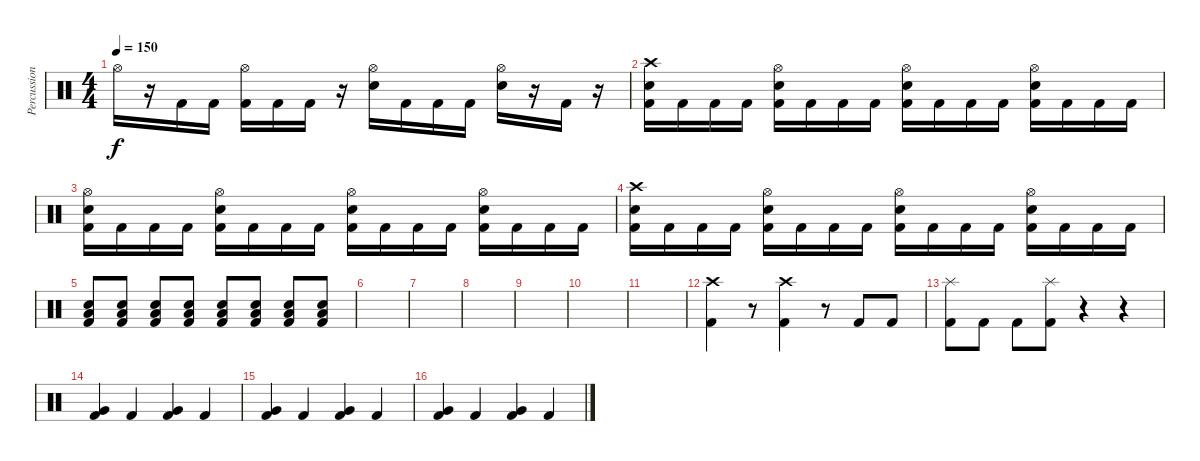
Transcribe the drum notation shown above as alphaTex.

\track ("Percussion" "Percussion") {instrument percussion}
\staff {score}
\articulation defaults
\ts (4 4)
\tempo 150
\clef neutral
\ks c "Hi-Hat (open)".16{dy f}
r.16 "Kick (hit) 2".16 "Kick (hit) 2".16 ("Hi-Hat (open)" "Kick (hit) 2").16 "Kick (hit) 2".16 "Kick (hit) 2".16 r.16 ("Hi-Hat (open)" "Snare (hit) 2").16 "Kick (hit) 2".16 "Kick (hit) 2".16 "Kick (hit) 2".16 ("Hi-Hat (open)" "Snare (hit) 2").16 r.16 "Kick (hit) 2".16 r.16 |
("Crash high (hit)" "Snare (hit) 2" "Kick (hit) 2").16 "Kick (hit) 2".16 "Kick (hit) 2".16 "Kick (hit) 2".16 ("Hi-Hat (open)" "Snare (hit) 2" "Kick (hit) 2").16 "Kick (hit) 2".16 "Kick (hit) 2".16 "Kick (hit) 2".16 ("Hi-Hat (open)" "Snare (hit) 2" "Kick (hit) 2").16 "Kick (hit) 2".16 "Kick (hit) 2".16 "Kick (hit) 2".16 ("Hi-Hat (open)" "Snare (hit) 2" "Kick (hit) 2").16 "Kick (hit) 2".16 "Kick (hit) 2".16 "Kick (hit) 2".16 |
("Hi-Hat (open)" "Snare (hit) 2" "Kick (hit) 2").16 "Kick (hit) 2".16 "Kick (hit) 2".16 "Kick (hit) 2".16 ("Hi-Hat (open)" "Snare (hit) 2" "Kick (hit) 2").16 "Kick (hit) 2".16 "Kick (hit) 2".16 "Kick (hit) 2".16 ("Hi-Hat (open)" "Snare (hit) 2" "Kick (hit) 2").16 "Kick (hit) 2".16 "Kick (hit) 2".16 "Kick (hit) 2".16 ("Hi-Hat (open)" "Snare (hit) 2" "Kick (hit) 2").16 "Kick (hit) 2".16 "Kick (hit) 2".16 "Kick (hit) 2".16 |
("Crash high (hit)" "Snare (hit) 2" "Kick (hit) 2").16 "Kick (hit) 2".16 "Kick (hit) 2".16 "Kick (hit) 2".16 ("Hi-Hat (open)" "Snare (hit) 2" "Kick (hit) 2").16 "Kick (hit) 2".16 "Kick (hit) 2".16 "Kick (hit) 2".16 ("Hi-Hat (open)" "Snare (hit) 2" "Kick (hit) 2").16 "Kick (hit) 2".16 "Kick (hit) 2".16 "Kick (hit) 2".16 ("Hi-Hat (open)" "Snare (hit) 2" "Kick (hit) 2").16 "Kick (hit) 2".16 "Kick (hit) 2".16 "Kick (hit) 2".16 |
("Snare (hit) 2" "Low Floor Tom (hit)" "Kick (hit) 2").8 ("Snare (hit) 2" "Low Floor Tom (hit)" "Kick (hit) 2").8 ("Snare (hit) 2" "Low Floor Tom (hit)" "Kick (hit) 2").8 ("Snare (hit) 2" "Low Floor Tom (hit)" "Kick (hit) 2").8 ("Snare (hit) 2" "Low Floor Tom (hit)" "Kick (hit) 2").8 ("Snare (hit) 2" "Low Floor Tom (hit)" "Kick (hit) 2").8 ("Snare (hit) 2" "Low Floor Tom (hit)" "Kick (hit) 2").8 ("Snare (hit) 2" "Low Floor Tom (hit)" "Kick (hit) 2").8 |
|
|
|
|
|
|
("Crash high (hit)" "Kick (hit) 2").4 r.8 ("Crash high (hit)" "Kick (hit) 2").4 r.8 "Kick (hit) 2".8 "Kick (hit) 2".8 |
("Splash (hit)" "Kick (hit) 2").8 "Kick (hit) 2".8 "Kick (hit) 2".8 ("Splash (hit)" "Kick (hit) 2").8 r.4 r.4 |
("Very Low Tom (hit)" "Kick (hit) 2").4 "Kick (hit) 2".4 ("Very Low Tom (hit)" "Kick (hit) 2").4 "Kick (hit) 2".4 |
("Very Low Tom (hit)" "Kick (hit) 2").4 "Kick (hit) 2".4 ("Very Low Tom (hit)" "Kick (hit) 2").4 "Kick (hit) 2".4 |
("Very Low Tom (hit)" "Kick (hit) 2").4 "Kick (hit) 2".4 ("Very Low Tom (hit)" "Kick (hit) 2").4 "Kick (hit) 2".4
